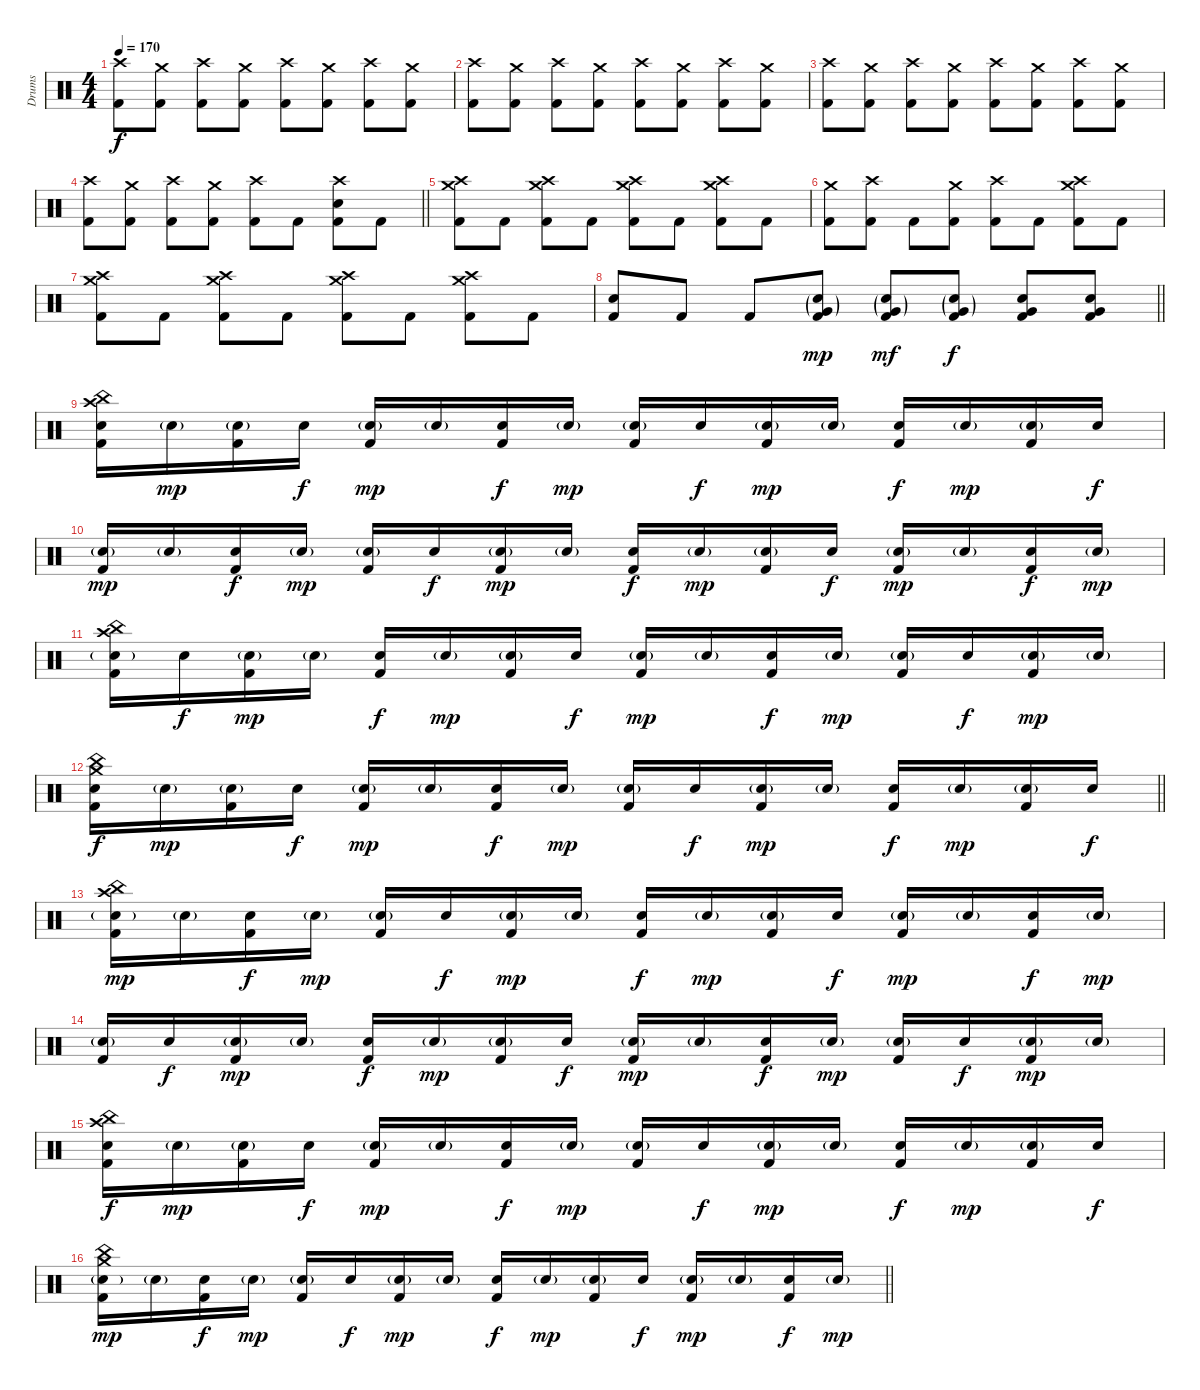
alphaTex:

\track ("Drums" "Drums") {instrument percussion}
\staff {score}
\articulation defaults
\ts (4 4)
\tempo 170
\clef neutral
\ks c
("Crash high (hit)" "Kick (hit) 2").8{dy f} ("Crash medium (hit)" "Kick (hit) 2").8 ("Crash high (hit)" "Kick (hit) 2").8 ("Crash medium (hit)" "Kick (hit) 2").8 ("Crash high (hit)" "Kick (hit) 2").8 ("Crash medium (hit)" "Kick (hit) 2").8 ("Crash high (hit)" "Kick (hit) 2").8 ("Crash medium (hit)" "Kick (hit) 2").8 |
("Crash high (hit)" "Kick (hit) 2").8 ("Crash medium (hit)" "Kick (hit) 2").8 ("Crash high (hit)" "Kick (hit) 2").8 ("Crash medium (hit)" "Kick (hit) 2").8 ("Crash high (hit)" "Kick (hit) 2").8 ("Crash medium (hit)" "Kick (hit) 2").8 ("Crash high (hit)" "Kick (hit) 2").8 ("Crash medium (hit)" "Kick (hit) 2").8 |
("Crash high (hit)" "Kick (hit) 2").8 ("Crash medium (hit)" "Kick (hit) 2").8 ("Crash high (hit)" "Kick (hit) 2").8 ("Crash medium (hit)" "Kick (hit) 2").8 ("Crash high (hit)" "Kick (hit) 2").8 ("Crash medium (hit)" "Kick (hit) 2").8 ("Crash high (hit)" "Kick (hit) 2").8 ("Crash medium (hit)" "Kick (hit) 2").8 |
\barLineRight lightlight
("Crash high (hit)" "Kick (hit) 2").8 ("Crash medium (hit)" "Kick (hit) 2").8 ("Crash high (hit)" "Kick (hit) 2").8 ("Crash medium (hit)" "Kick (hit) 2").8 ("Crash high (hit)" "Kick (hit) 2").8 "Kick (hit) 2".8 ("Crash high (hit)" "Electric Snare (hit)" "Kick (hit) 2").8 "Kick (hit) 2".8 |
("Crash high (hit)" "Crash medium (hit)" "Kick (hit) 2").8 "Kick (hit) 2".8 ("Crash high (hit)" "Crash medium (hit)" "Kick (hit) 2").8 "Kick (hit) 2".8 ("Crash high (hit)" "Crash medium (hit)" "Kick (hit) 2").8 "Kick (hit) 2".8 ("Crash high (hit)" "Crash medium (hit)" "Kick (hit) 2").8 "Kick (hit) 2".8 |
("Crash medium (hit)" "Kick (hit) 2").8 ("Crash high (hit)" "Kick (hit) 2").8 "Kick (hit) 2".8 ("Crash medium (hit)" "Kick (hit) 2").8 ("Crash high (hit)" "Kick (hit) 2").8 "Kick (hit) 2".8 ("Crash high (hit)" "Crash medium (hit)" "Kick (hit) 2").8 "Kick (hit) 2".8 |
("Crash high (hit)" "Crash medium (hit)" "Kick (hit) 2").8 "Kick (hit) 2".8 ("Crash high (hit)" "Crash medium (hit)" "Kick (hit) 2").8 "Kick (hit) 2".8 ("Crash high (hit)" "Crash medium (hit)" "Kick (hit) 2").8 "Kick (hit) 2".8 ("Crash high (hit)" "Crash medium (hit)" "Kick (hit) 2").8 "Kick (hit) 2".8 |
\barLineRight lightlight
("Electric Snare (hit)" "Kick (hit) 2").8 "Kick (hit) 2".8 "Kick (hit) 2".8 ("Electric Snare (hit)"{g} "Very Low Tom (hit)"{g} "Kick (hit) 2").8{dy mp} ("Electric Snare (hit)"{g} "Very Low Tom (hit)"{g} "Kick (hit) 2").8{dy mf} ("Electric Snare (hit)"{g} "Very Low Tom (hit)"{g} "Kick (hit) 2").8{dy f} ("Electric Snare (hit)" "Very Low Tom (hit)" "Kick (hit) 2").8 ("Electric Snare (hit)" "Very Low Tom (hit)" "Kick (hit) 2").8 |
("Crash high (hit)" "China (hit)" "Electric Snare (hit)" "Kick (hit) 2").16 "Electric Snare (hit)"{g}.16{dy mp} ("Electric Snare (hit)"{g} "Kick (hit) 2").16 "Electric Snare (hit)".16{dy f} ("Electric Snare (hit)"{g} "Kick (hit) 2").16{dy mp} "Electric Snare (hit)"{g}.16 ("Electric Snare (hit)" "Kick (hit) 2").16{dy f} "Electric Snare (hit)"{g}.16{dy mp} ("Electric Snare (hit)"{g} "Kick (hit) 2").16 "Electric Snare (hit)".16{dy f} ("Electric Snare (hit)"{g} "Kick (hit) 2").16{dy mp} "Electric Snare (hit)"{g}.16 ("Electric Snare (hit)" "Kick (hit) 2").16{dy f} "Electric Snare (hit)"{g}.16{dy mp} ("Electric Snare (hit)"{g} "Kick (hit) 2").16 "Electric Snare (hit)".16{dy f} |
("Electric Snare (hit)"{g} "Kick (hit) 2").16{dy mp} "Electric Snare (hit)"{g}.16 ("Electric Snare (hit)" "Kick (hit) 2").16{dy f} "Electric Snare (hit)"{g}.16{dy mp} ("Electric Snare (hit)"{g} "Kick (hit) 2").16 "Electric Snare (hit)".16{dy f} ("Electric Snare (hit)"{g} "Kick (hit) 2").16{dy mp} "Electric Snare (hit)"{g}.16 ("Electric Snare (hit)" "Kick (hit) 2").16{dy f} "Electric Snare (hit)"{g}.16{dy mp} ("Electric Snare (hit)"{g} "Kick (hit) 2").16 "Electric Snare (hit)".16{dy f} ("Electric Snare (hit)"{g} "Kick (hit) 2").16{dy mp} "Electric Snare (hit)"{g}.16 ("Electric Snare (hit)" "Kick (hit) 2").16{dy f} "Electric Snare (hit)"{g}.16{dy mp} |
("Crash high (hit)" "China (hit)" "Electric Snare (hit)"{g} "Kick (hit) 2").16 "Electric Snare (hit)".16{dy f} ("Electric Snare (hit)"{g} "Kick (hit) 2").16{dy mp} "Electric Snare (hit)"{g}.16 ("Electric Snare (hit)" "Kick (hit) 2").16{dy f} "Electric Snare (hit)"{g}.16{dy mp} ("Electric Snare (hit)"{g} "Kick (hit) 2").16 "Electric Snare (hit)".16{dy f} ("Electric Snare (hit)"{g} "Kick (hit) 2").16{dy mp} "Electric Snare (hit)"{g}.16 ("Electric Snare (hit)" "Kick (hit) 2").16{dy f} "Electric Snare (hit)"{g}.16{dy mp} ("Electric Snare (hit)"{g} "Kick (hit) 2").16 "Electric Snare (hit)".16{dy f} ("Electric Snare (hit)"{g} "Kick (hit) 2").16{dy mp} "Electric Snare (hit)"{g}.16 |
\barLineRight lightlight
("Crash medium (hit)" "China (hit)" "Electric Snare (hit)" "Kick (hit) 2").16{dy f} "Electric Snare (hit)"{g}.16{dy mp} ("Electric Snare (hit)"{g} "Kick (hit) 2").16 "Electric Snare (hit)".16{dy f} ("Electric Snare (hit)"{g} "Kick (hit) 2").16{dy mp} "Electric Snare (hit)"{g}.16 ("Electric Snare (hit)" "Kick (hit) 2").16{dy f} "Electric Snare (hit)"{g}.16{dy mp} ("Electric Snare (hit)"{g} "Kick (hit) 2").16 "Electric Snare (hit)".16{dy f} ("Electric Snare (hit)"{g} "Kick (hit) 2").16{dy mp} "Electric Snare (hit)"{g}.16 ("Electric Snare (hit)" "Kick (hit) 2").16{dy f} "Electric Snare (hit)"{g}.16{dy mp} ("Electric Snare (hit)"{g} "Kick (hit) 2").16 "Electric Snare (hit)".16{dy f} |
("Crash high (hit)" "China (hit)" "Electric Snare (hit)"{g} "Kick (hit) 2").16{dy mp} "Electric Snare (hit)"{g}.16 ("Electric Snare (hit)" "Kick (hit) 2").16{dy f} "Electric Snare (hit)"{g}.16{dy mp} ("Electric Snare (hit)"{g} "Kick (hit) 2").16 "Electric Snare (hit)".16{dy f} ("Electric Snare (hit)"{g} "Kick (hit) 2").16{dy mp} "Electric Snare (hit)"{g}.16 ("Electric Snare (hit)" "Kick (hit) 2").16{dy f} "Electric Snare (hit)"{g}.16{dy mp} ("Electric Snare (hit)"{g} "Kick (hit) 2").16 "Electric Snare (hit)".16{dy f} ("Electric Snare (hit)"{g} "Kick (hit) 2").16{dy mp} "Electric Snare (hit)"{g}.16 ("Electric Snare (hit)" "Kick (hit) 2").16{dy f} "Electric Snare (hit)"{g}.16{dy mp} |
("Electric Snare (hit)"{g} "Kick (hit) 2").16 "Electric Snare (hit)".16{dy f} ("Electric Snare (hit)"{g} "Kick (hit) 2").16{dy mp} "Electric Snare (hit)"{g}.16 ("Electric Snare (hit)" "Kick (hit) 2").16{dy f} "Electric Snare (hit)"{g}.16{dy mp} ("Electric Snare (hit)"{g} "Kick (hit) 2").16 "Electric Snare (hit)".16{dy f} ("Electric Snare (hit)"{g} "Kick (hit) 2").16{dy mp} "Electric Snare (hit)"{g}.16 ("Electric Snare (hit)" "Kick (hit) 2").16{dy f} "Electric Snare (hit)"{g}.16{dy mp} ("Electric Snare (hit)"{g} "Kick (hit) 2").16 "Electric Snare (hit)".16{dy f} ("Electric Snare (hit)"{g} "Kick (hit) 2").16{dy mp} "Electric Snare (hit)"{g}.16 |
("Crash high (hit)" "China (hit)" "Electric Snare (hit)" "Kick (hit) 2").16{dy f} "Electric Snare (hit)"{g}.16{dy mp} ("Electric Snare (hit)"{g} "Kick (hit) 2").16 "Electric Snare (hit)".16{dy f} ("Electric Snare (hit)"{g} "Kick (hit) 2").16{dy mp} "Electric Snare (hit)"{g}.16 ("Electric Snare (hit)" "Kick (hit) 2").16{dy f} "Electric Snare (hit)"{g}.16{dy mp} ("Electric Snare (hit)"{g} "Kick (hit) 2").16 "Electric Snare (hit)".16{dy f} ("Electric Snare (hit)"{g} "Kick (hit) 2").16{dy mp} "Electric Snare (hit)"{g}.16 ("Electric Snare (hit)" "Kick (hit) 2").16{dy f} "Electric Snare (hit)"{g}.16{dy mp} ("Electric Snare (hit)"{g} "Kick (hit) 2").16 "Electric Snare (hit)".16{dy f} |
\barLineRight lightlight
("Crash medium (hit)" "China (hit)" "Electric Snare (hit)"{g} "Kick (hit) 2").16{dy mp} "Electric Snare (hit)"{g}.16 ("Electric Snare (hit)" "Kick (hit) 2").16{dy f} "Electric Snare (hit)"{g}.16{dy mp} ("Electric Snare (hit)"{g} "Kick (hit) 2").16 "Electric Snare (hit)".16{dy f} ("Electric Snare (hit)"{g} "Kick (hit) 2").16{dy mp} "Electric Snare (hit)"{g}.16 ("Electric Snare (hit)" "Kick (hit) 2").16{dy f} "Electric Snare (hit)"{g}.16{dy mp} ("Electric Snare (hit)"{g} "Kick (hit) 2").16 "Electric Snare (hit)".16{dy f} ("Electric Snare (hit)"{g} "Kick (hit) 2").16{dy mp} "Electric Snare (hit)"{g}.16 ("Electric Snare (hit)" "Kick (hit) 2").16{dy f} "Electric Snare (hit)"{g}.16{dy mp}
